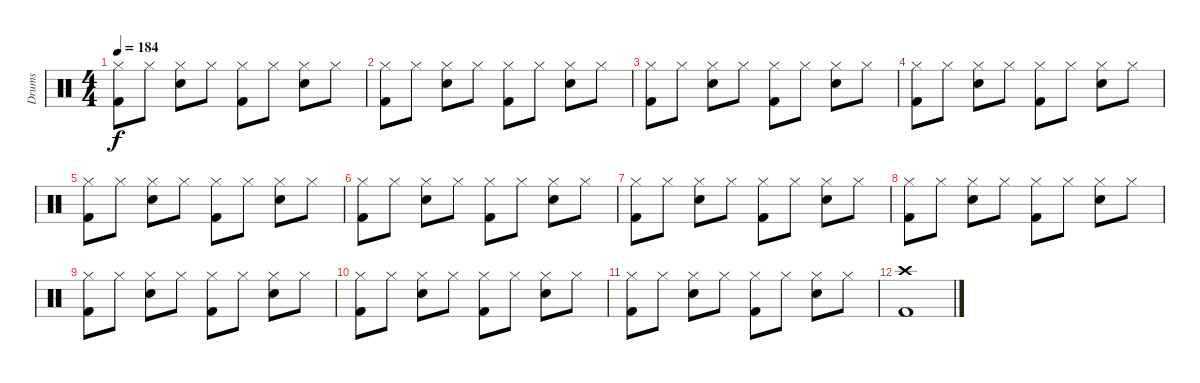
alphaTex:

\track ("Drums" "Drums") {instrument percussion}
\staff {score}
\articulation defaults
\ts (4 4)
\tempo 184
\clef neutral
\ks c
("Hi-Hat (closed)" "Kick (hit) 2").8{dy f} "Hi-Hat (closed)".8 ("Hi-Hat (closed)" "Snare (hit) 2").8 "Hi-Hat (closed)".8 ("Hi-Hat (closed)" "Kick (hit) 2").8 "Hi-Hat (closed)".8 ("Hi-Hat (closed)" "Snare (hit) 2").8 "Hi-Hat (closed)".8 |
("Hi-Hat (closed)" "Kick (hit) 2").8 "Hi-Hat (closed)".8 ("Hi-Hat (closed)" "Snare (hit) 2").8 "Hi-Hat (closed)".8 ("Hi-Hat (closed)" "Kick (hit) 2").8 "Hi-Hat (closed)".8 ("Hi-Hat (closed)" "Snare (hit) 2").8 "Hi-Hat (closed)".8 |
("Hi-Hat (closed)" "Kick (hit) 2").8 "Hi-Hat (closed)".8 ("Hi-Hat (closed)" "Snare (hit) 2").8 "Hi-Hat (closed)".8 ("Hi-Hat (closed)" "Kick (hit) 2").8 "Hi-Hat (closed)".8 ("Hi-Hat (closed)" "Snare (hit) 2").8 "Hi-Hat (closed)".8 |
("Hi-Hat (closed)" "Kick (hit) 2").8 "Hi-Hat (closed)".8 ("Hi-Hat (closed)" "Snare (hit) 2").8 "Hi-Hat (closed)".8 ("Hi-Hat (closed)" "Kick (hit) 2").8 "Hi-Hat (closed)".8 ("Hi-Hat (closed)" "Snare (hit) 2").8 "Hi-Hat (closed)".8 |
("Hi-Hat (closed)" "Kick (hit) 2").8 "Hi-Hat (closed)".8 ("Hi-Hat (closed)" "Snare (hit) 2").8 "Hi-Hat (closed)".8 ("Hi-Hat (closed)" "Kick (hit) 2").8 "Hi-Hat (closed)".8 ("Hi-Hat (closed)" "Snare (hit) 2").8 "Hi-Hat (closed)".8 |
("Hi-Hat (closed)" "Kick (hit) 2").8 "Hi-Hat (closed)".8 ("Hi-Hat (closed)" "Snare (hit) 2").8 "Hi-Hat (closed)".8 ("Hi-Hat (closed)" "Kick (hit) 2").8 "Hi-Hat (closed)".8 ("Hi-Hat (closed)" "Snare (hit) 2").8 "Hi-Hat (closed)".8 |
("Hi-Hat (closed)" "Kick (hit) 2").8 "Hi-Hat (closed)".8 ("Hi-Hat (closed)" "Snare (hit) 2").8 "Hi-Hat (closed)".8 ("Hi-Hat (closed)" "Kick (hit) 2").8 "Hi-Hat (closed)".8 ("Hi-Hat (closed)" "Snare (hit) 2").8 "Hi-Hat (closed)".8 |
("Hi-Hat (closed)" "Kick (hit) 2").8 "Hi-Hat (closed)".8 ("Hi-Hat (closed)" "Snare (hit) 2").8 "Hi-Hat (closed)".8 ("Hi-Hat (closed)" "Kick (hit) 2").8 "Hi-Hat (closed)".8 ("Hi-Hat (closed)" "Snare (hit) 2").8 "Hi-Hat (closed)".8 |
("Hi-Hat (closed)" "Kick (hit) 2").8 "Hi-Hat (closed)".8 ("Hi-Hat (closed)" "Snare (hit) 2").8 "Hi-Hat (closed)".8 ("Hi-Hat (closed)" "Kick (hit) 2").8 "Hi-Hat (closed)".8 ("Hi-Hat (closed)" "Snare (hit) 2").8 "Hi-Hat (closed)".8 |
("Hi-Hat (closed)" "Kick (hit) 2").8 "Hi-Hat (closed)".8 ("Hi-Hat (closed)" "Snare (hit) 2").8 "Hi-Hat (closed)".8 ("Hi-Hat (closed)" "Kick (hit) 2").8 "Hi-Hat (closed)".8 ("Hi-Hat (closed)" "Snare (hit) 2").8 "Hi-Hat (closed)".8 |
("Hi-Hat (closed)" "Kick (hit) 2").8 "Hi-Hat (closed)".8 ("Hi-Hat (closed)" "Snare (hit) 2").8 "Hi-Hat (closed)".8 ("Hi-Hat (closed)" "Kick (hit) 2").8 "Hi-Hat (closed)".8 ("Hi-Hat (closed)" "Snare (hit) 2").8 "Hi-Hat (closed)".8 |
("Crash high (hit)" "Kick (hit) 2").1
